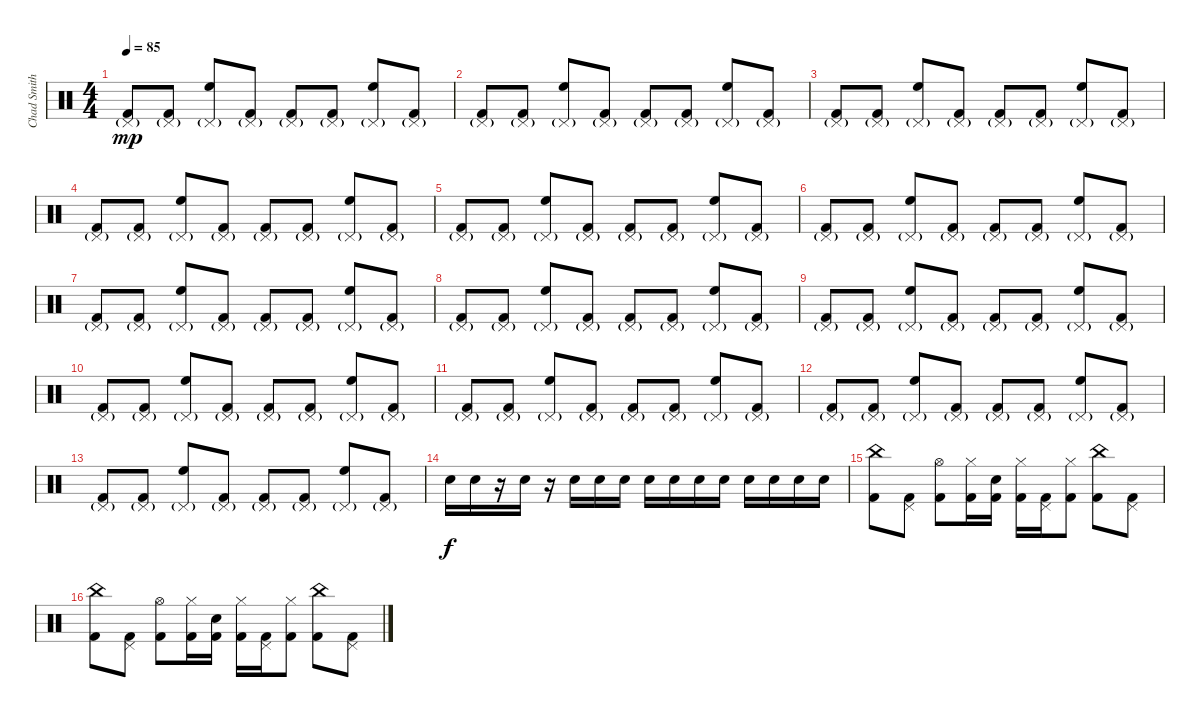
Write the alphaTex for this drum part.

\track ("Chad Smith - Drums" "Chad Smith") {instrument percussion}
\staff {score}
\articulation defaults
\ts (4 4)
\tempo 85
\clef neutral
\ks c
("Pedal Hi-Hat (hit)"{g} "Kick (hit) 2").8{dy mp} ("Pedal Hi-Hat (hit)"{g} "Kick (hit) 2").8 ("Pedal Hi-Hat (hit)"{g} "High Floor Tom (hit)").8 ("Pedal Hi-Hat (hit)"{g} "Kick (hit) 2").8 ("Pedal Hi-Hat (hit)"{g} "Kick (hit) 2").8 ("Pedal Hi-Hat (hit)"{g} "Kick (hit) 2").8 ("Pedal Hi-Hat (hit)"{g} "High Floor Tom (hit)").8 ("Pedal Hi-Hat (hit)"{g} "Kick (hit) 2").8 |
("Pedal Hi-Hat (hit)"{g} "Kick (hit) 2").8 ("Pedal Hi-Hat (hit)"{g} "Kick (hit) 2").8 ("Pedal Hi-Hat (hit)"{g} "High Floor Tom (hit)").8 ("Pedal Hi-Hat (hit)"{g} "Kick (hit) 2").8 ("Pedal Hi-Hat (hit)"{g} "Kick (hit) 2").8 ("Pedal Hi-Hat (hit)"{g} "Kick (hit) 2").8 ("Pedal Hi-Hat (hit)"{g} "High Floor Tom (hit)").8 ("Pedal Hi-Hat (hit)"{g} "Kick (hit) 2").8 |
("Pedal Hi-Hat (hit)"{g} "Kick (hit) 2").8 ("Pedal Hi-Hat (hit)"{g} "Kick (hit) 2").8 ("Pedal Hi-Hat (hit)"{g} "High Floor Tom (hit)").8 ("Pedal Hi-Hat (hit)"{g} "Kick (hit) 2").8 ("Pedal Hi-Hat (hit)"{g} "Kick (hit) 2").8 ("Pedal Hi-Hat (hit)"{g} "Kick (hit) 2").8 ("Pedal Hi-Hat (hit)"{g} "High Floor Tom (hit)").8 ("Pedal Hi-Hat (hit)"{g} "Kick (hit) 2").8 |
("Pedal Hi-Hat (hit)"{g} "Kick (hit) 2").8 ("Pedal Hi-Hat (hit)"{g} "Kick (hit) 2").8 ("Pedal Hi-Hat (hit)"{g} "High Floor Tom (hit)").8 ("Pedal Hi-Hat (hit)"{g} "Kick (hit) 2").8 ("Pedal Hi-Hat (hit)"{g} "Kick (hit) 2").8 ("Pedal Hi-Hat (hit)"{g} "Kick (hit) 2").8 ("Pedal Hi-Hat (hit)"{g} "High Floor Tom (hit)").8 ("Pedal Hi-Hat (hit)"{g} "Kick (hit) 2").8 |
("Pedal Hi-Hat (hit)"{g} "Kick (hit) 2").8 ("Pedal Hi-Hat (hit)"{g} "Kick (hit) 2").8 ("Pedal Hi-Hat (hit)"{g} "High Floor Tom (hit)").8 ("Pedal Hi-Hat (hit)"{g} "Kick (hit) 2").8 ("Pedal Hi-Hat (hit)"{g} "Kick (hit) 2").8 ("Pedal Hi-Hat (hit)"{g} "Kick (hit) 2").8 ("Pedal Hi-Hat (hit)"{g} "High Floor Tom (hit)").8 ("Pedal Hi-Hat (hit)"{g} "Kick (hit) 2").8 |
("Pedal Hi-Hat (hit)"{g} "Kick (hit) 2").8 ("Pedal Hi-Hat (hit)"{g} "Kick (hit) 2").8 ("Pedal Hi-Hat (hit)"{g} "High Floor Tom (hit)").8 ("Pedal Hi-Hat (hit)"{g} "Kick (hit) 2").8 ("Pedal Hi-Hat (hit)"{g} "Kick (hit) 2").8 ("Pedal Hi-Hat (hit)"{g} "Kick (hit) 2").8 ("Pedal Hi-Hat (hit)"{g} "High Floor Tom (hit)").8 ("Pedal Hi-Hat (hit)"{g} "Kick (hit) 2").8 |
("Pedal Hi-Hat (hit)"{g} "Kick (hit) 2").8 ("Pedal Hi-Hat (hit)"{g} "Kick (hit) 2").8 ("Pedal Hi-Hat (hit)"{g} "High Floor Tom (hit)").8 ("Pedal Hi-Hat (hit)"{g} "Kick (hit) 2").8 ("Pedal Hi-Hat (hit)"{g} "Kick (hit) 2").8 ("Pedal Hi-Hat (hit)"{g} "Kick (hit) 2").8 ("Pedal Hi-Hat (hit)"{g} "High Floor Tom (hit)").8 ("Pedal Hi-Hat (hit)"{g} "Kick (hit) 2").8 |
("Pedal Hi-Hat (hit)"{g} "Kick (hit) 2").8 ("Pedal Hi-Hat (hit)"{g} "Kick (hit) 2").8 ("Pedal Hi-Hat (hit)"{g} "High Floor Tom (hit)").8 ("Pedal Hi-Hat (hit)"{g} "Kick (hit) 2").8 ("Pedal Hi-Hat (hit)"{g} "Kick (hit) 2").8 ("Pedal Hi-Hat (hit)"{g} "Kick (hit) 2").8 ("Pedal Hi-Hat (hit)"{g} "High Floor Tom (hit)").8 ("Pedal Hi-Hat (hit)"{g} "Kick (hit) 2").8 |
("Pedal Hi-Hat (hit)"{g} "Kick (hit) 2").8 ("Pedal Hi-Hat (hit)"{g} "Kick (hit) 2").8 ("Pedal Hi-Hat (hit)"{g} "High Floor Tom (hit)").8 ("Pedal Hi-Hat (hit)"{g} "Kick (hit) 2").8 ("Pedal Hi-Hat (hit)"{g} "Kick (hit) 2").8 ("Pedal Hi-Hat (hit)"{g} "Kick (hit) 2").8 ("Pedal Hi-Hat (hit)"{g} "High Floor Tom (hit)").8 ("Pedal Hi-Hat (hit)"{g} "Kick (hit) 2").8 |
("Pedal Hi-Hat (hit)"{g} "Kick (hit) 2").8 ("Pedal Hi-Hat (hit)"{g} "Kick (hit) 2").8 ("Pedal Hi-Hat (hit)"{g} "High Floor Tom (hit)").8 ("Pedal Hi-Hat (hit)"{g} "Kick (hit) 2").8 ("Pedal Hi-Hat (hit)"{g} "Kick (hit) 2").8 ("Pedal Hi-Hat (hit)"{g} "Kick (hit) 2").8 ("Pedal Hi-Hat (hit)"{g} "High Floor Tom (hit)").8 ("Pedal Hi-Hat (hit)"{g} "Kick (hit) 2").8 |
("Pedal Hi-Hat (hit)"{g} "Kick (hit) 2").8 ("Pedal Hi-Hat (hit)"{g} "Kick (hit) 2").8 ("Pedal Hi-Hat (hit)"{g} "High Floor Tom (hit)").8 ("Pedal Hi-Hat (hit)"{g} "Kick (hit) 2").8 ("Pedal Hi-Hat (hit)"{g} "Kick (hit) 2").8 ("Pedal Hi-Hat (hit)"{g} "Kick (hit) 2").8 ("Pedal Hi-Hat (hit)"{g} "High Floor Tom (hit)").8 ("Pedal Hi-Hat (hit)"{g} "Kick (hit) 2").8 |
("Pedal Hi-Hat (hit)"{g} "Kick (hit) 2").8 ("Pedal Hi-Hat (hit)"{g} "Kick (hit) 2").8 ("Pedal Hi-Hat (hit)"{g} "High Floor Tom (hit)").8 ("Pedal Hi-Hat (hit)"{g} "Kick (hit) 2").8 ("Pedal Hi-Hat (hit)"{g} "Kick (hit) 2").8 ("Pedal Hi-Hat (hit)"{g} "Kick (hit) 2").8 ("Pedal Hi-Hat (hit)"{g} "High Floor Tom (hit)").8 ("Pedal Hi-Hat (hit)"{g} "Kick (hit) 2").8 |
("Pedal Hi-Hat (hit)"{g} "Kick (hit) 2").8 ("Pedal Hi-Hat (hit)"{g} "Kick (hit) 2").8 ("Pedal Hi-Hat (hit)"{g} "High Floor Tom (hit)").8 ("Pedal Hi-Hat (hit)"{g} "Kick (hit) 2").8 ("Pedal Hi-Hat (hit)"{g} "Kick (hit) 2").8 ("Pedal Hi-Hat (hit)"{g} "Kick (hit) 2").8 ("Pedal Hi-Hat (hit)"{g} "High Floor Tom (hit)").8 ("Pedal Hi-Hat (hit)"{g} "Kick (hit) 2").8 |
"Snare (hit) 2".16{dy f} "Snare (hit) 2".16 r.16 "Snare (hit) 2".16 r.16 "Snare (hit) 2".16 "Snare (hit) 2".16 "Snare (hit) 2".16 "Snare (hit) 2".16 "Snare (hit) 2".16 "Snare (hit) 2".16 "Snare (hit) 2".16 "Snare (hit) 2".16 "Snare (hit) 2".16 "Snare (hit) 2".16 "Snare (hit) 2".16 |
("China (hit)" "Kick (hit) 2").8 ("Pedal Hi-Hat (hit)" "Kick (hit) 2").8 ("Hi-Hat (open)" "Kick (hit) 2").8 ("Hi-Hat (closed)" "Kick (hit) 2").16 ("Electric Snare (hit)" "Kick (hit) 2").16 ("Hi-Hat (closed)" "Kick (hit) 2").16 ("Pedal Hi-Hat (hit)" "Kick (hit) 2").16 ("Hi-Hat (closed)" "Kick (hit) 2").8 ("China (hit)" "Kick (hit) 2").8 ("Pedal Hi-Hat (hit)" "Kick (hit) 2").8 |
("China (hit)" "Kick (hit) 2").8 ("Pedal Hi-Hat (hit)" "Kick (hit) 2").8 ("Hi-Hat (open)" "Kick (hit) 2").8 ("Hi-Hat (closed)" "Kick (hit) 2").16 ("Electric Snare (hit)" "Kick (hit) 2").16 ("Hi-Hat (closed)" "Kick (hit) 2").16 ("Pedal Hi-Hat (hit)" "Kick (hit) 2").16 ("Hi-Hat (closed)" "Kick (hit) 2").8 ("China (hit)" "Kick (hit) 2").8 ("Pedal Hi-Hat (hit)" "Kick (hit) 2").8
